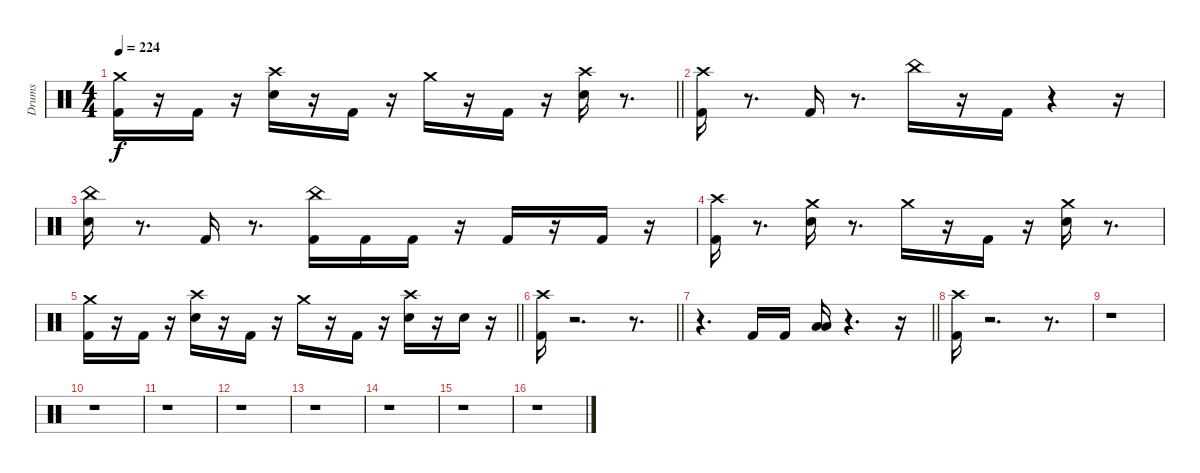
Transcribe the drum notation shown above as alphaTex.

\track ("Drums" "Drums") {instrument percussion}
\staff {score}
\articulation defaults
\ts (4 4)
\tempo 224
\clef neutral
\barLineRight lightlight
\ks c
("Kick (hit) 2" "Crash medium (hit)").16{dy f} r.16 "Kick (hit) 2".16 r.16 ("Snare (hit) 2" "Crash high (hit)").16 r.16 "Kick (hit) 2".16 r.16 "Crash medium (hit)".16 r.16 "Kick (hit) 2".16 r.16 ("Snare (hit) 2" "Crash high (hit)").16 r.8{d} |
("Kick (hit) 2" "Crash high (hit)").16 r.8{d} "Kick (hit) 2".16 r.8{d} "China (hit)".16 r.16 "Kick (hit) 2".16 r.4 r.16 |
("Snare (hit) 2" "China (hit)").16 r.8{d} "Kick (hit) 2".16 r.8{d} ("Kick (hit) 2" "China (hit)").16 "Kick (hit) 2".16 "Kick (hit) 2".16 r.16 "Kick (hit) 2".16 r.16 "Kick (hit) 2".16 r.16 |
("Kick (hit) 2" "Crash high (hit)").16 r.8{d} ("Snare (hit) 2" "Crash medium (hit)").16 r.8{d} "Crash medium (hit)".16 r.16 "Kick (hit) 2".16 r.16 ("Snare (hit) 2" "Crash medium (hit)").16 r.8{d} |
\barLineRight lightlight
("Kick (hit) 2" "Crash medium (hit)").16 r.16 "Kick (hit) 2".16 r.16 ("Snare (hit) 2" "Crash high (hit)").16 r.16 "Kick (hit) 2".16 r.16 "Crash medium (hit)".16 r.16 "Kick (hit) 2".16 r.16 ("Snare (hit) 2" "Crash high (hit)").16 r.16 "Snare (hit) 2".16 r.16 |
\section ("" " ")
\barLineRight lightlight
("Kick (hit) 2" "Crash high (hit)").16 r.2{d} r.8{d} |
\barLineRight lightlight
r.4{d} "Kick (hit) 2".16 "Kick (hit) 2".16 ("Low Floor Tom (hit)" "Low Tom (hit)").16 r.4{d} r.16 |
\section ("" " ")
("Kick (hit) 2" "Crash high (hit)").16 r.2{d} r.8{d} |
r.1 |
r.1 |
r.1 |
r.1 |
r.1 |
r.1 |
r.1 |
r.1
